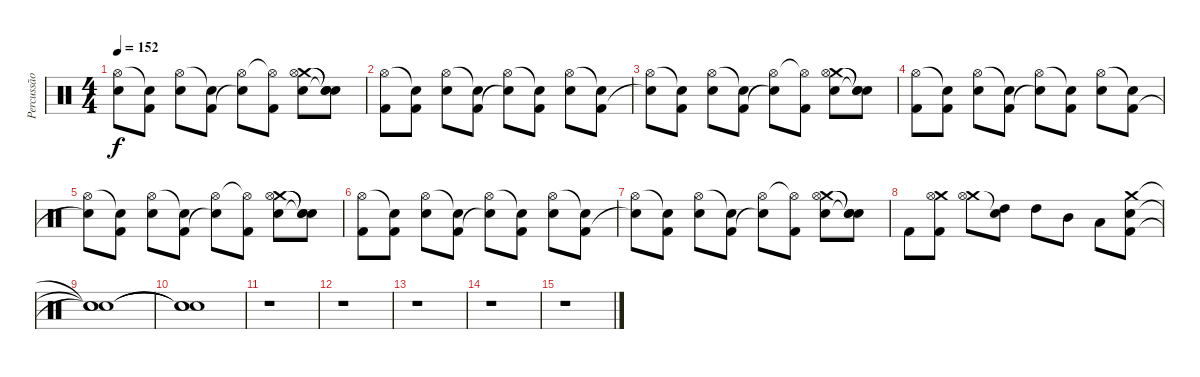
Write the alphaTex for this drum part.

\track ("Percussão" "Percussão") {instrument percussion}
\staff {score}
\articulation defaults
\ts (4 4)
\tempo 152
\clef neutral
\ks c
("Hi-Hat (open)" "Snare (hit)"{t}).8{dy f} ("Snare (hit)"{t} "Kick (hit) 2").8 ("Hi-Hat (open)" "Snare (hit) 2").8 ("Snare (hit)"{t} "Kick (hit) 2").8 ("Hi-Hat (open)" "Snare (hit)"{t}).8 ("Hi-Hat (open)"{t} "Kick (hit) 2").8 ("Crash medium (hit)" "Snare (hit) 2" "Hi-Hat (open)").8 ("Snare (hit)"{t} "Snare (hit)"{t} "Snare (hit)"{t}).8 |
("Hi-Hat (open)" "Kick (hit) 2").8 ("Snare (hit)"{t} "Kick (hit) 2").8 ("Hi-Hat (open)" "Snare (hit) 2").8 ("Snare (hit)"{t} "Kick (hit) 2").8 ("Hi-Hat (open)" "Snare (hit)"{t}).8 ("Snare (hit)"{t} "Kick (hit) 2").8 ("Hi-Hat (open)" "Snare (hit) 2").8 ("Snare (hit)"{t} "Kick (hit) 2").8 |
("Hi-Hat (open)" "Snare (hit)"{t}).8 ("Snare (hit)"{t} "Kick (hit) 2").8 ("Hi-Hat (open)" "Snare (hit) 2").8 ("Snare (hit)"{t} "Kick (hit) 2").8 ("Hi-Hat (open)" "Snare (hit)"{t}).8 ("Hi-Hat (open)"{t} "Kick (hit) 2").8 ("Crash medium (hit)" "Snare (hit) 2" "Hi-Hat (open)").8 ("Snare (hit)"{t} "Snare (hit)"{t} "Snare (hit)"{t}).8 |
("Hi-Hat (open)" "Kick (hit) 2").8 ("Snare (hit)"{t} "Kick (hit) 2").8 ("Hi-Hat (open)" "Snare (hit) 2").8 ("Snare (hit)"{t} "Kick (hit) 2").8 ("Hi-Hat (open)" "Snare (hit)"{t}).8 ("Snare (hit)"{t} "Kick (hit) 2").8 ("Hi-Hat (open)" "Snare (hit) 2").8 ("Snare (hit)"{t} "Kick (hit) 2").8 |
("Hi-Hat (open)" "Snare (hit)"{t}).8 ("Snare (hit)"{t} "Kick (hit) 2").8 ("Hi-Hat (open)" "Snare (hit) 2").8 ("Snare (hit)"{t} "Kick (hit) 2").8 ("Hi-Hat (open)" "Snare (hit)"{t}).8 ("Hi-Hat (open)"{t} "Kick (hit) 2").8 ("Crash medium (hit)" "Snare (hit) 2" "Hi-Hat (open)").8 ("Snare (hit)"{t} "Snare (hit)"{t} "Snare (hit)"{t}).8 |
("Hi-Hat (open)" "Kick (hit) 2").8 ("Snare (hit)"{t} "Kick (hit) 2").8 ("Hi-Hat (open)" "Snare (hit) 2").8 ("Snare (hit)"{t} "Kick (hit) 2").8 ("Hi-Hat (open)" "Snare (hit)"{t}).8 ("Snare (hit)"{t} "Kick (hit) 2").8 ("Hi-Hat (open)" "Snare (hit) 2").8 ("Snare (hit)"{t} "Kick (hit) 2").8 |
("Hi-Hat (open)" "Snare (hit)"{t}).8 ("Snare (hit)"{t} "Kick (hit) 2").8 ("Hi-Hat (open)" "Snare (hit) 2").8 ("Snare (hit)"{t} "Kick (hit) 2").8 ("Hi-Hat (open)" "Snare (hit)"{t}).8 ("Hi-Hat (open)"{t} "Kick (hit) 2").8 ("Crash medium (hit)" "Snare (hit) 2" "Hi-Hat (open)").8 ("Snare (hit)"{t} "Snare (hit)"{t} "Snare (hit)"{t}).8 |
"Kick (hit) 2".8 ("Crash medium (hit)" "Hi-Hat (open)" "Kick (hit) 2").8 ("Crash medium (hit)" "Hi-Hat (open)").8 ("Snare (hit)"{t} "High Tom (hit)").8 "High Tom (hit)".8 "Mid Tom (hit)".8 "Low Tom (hit)".8 ("Crash medium (hit)" "Snare (hit) 2" "Kick (hit) 2").8 |
("Snare (hit)"{t} "Snare (hit)"{t} "Snare (hit)"{t}).1 |
("Snare (hit)"{t} "Snare (hit)"{t} "Snare (hit)"{t}).1 |
r.1 |
r.1 |
r.1 |
r.1 |
r.1
